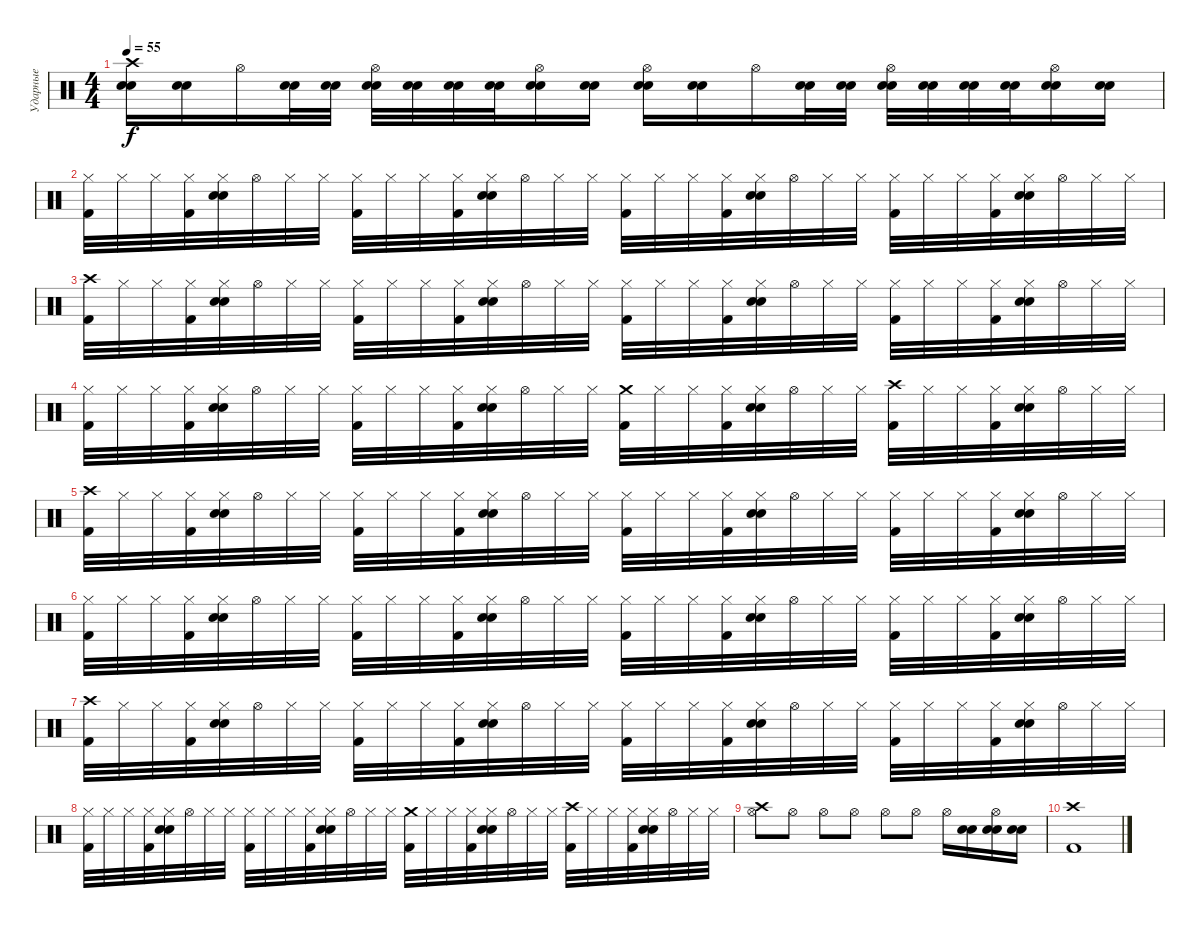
\track ("Ударные" "Ударные") {instrument percussion}
\staff {score}
\articulation defaults
\ts (4 4)
\tempo 55
\clef neutral
\ks c
("Crash high (hit)" "Electric Snare (hit)" "Snare (hit) 2").16{dy f} ("Electric Snare (hit)" "Snare (hit) 2").16 "Hi-Hat (open)".16 ("Electric Snare (hit)" "Snare (hit) 2").32 ("Electric Snare (hit)" "Snare (hit) 2").32 ("Hi-Hat (open)" "Electric Snare (hit)" "Snare (hit) 2").32 ("Electric Snare (hit)" "Snare (hit) 2").32 ("Electric Snare (hit)" "Snare (hit) 2").32 ("Electric Snare (hit)" "Snare (hit) 2").32 ("Hi-Hat (open)" "Electric Snare (hit)" "Snare (hit) 2").16 ("Electric Snare (hit)" "Snare (hit) 2").16 ("Hi-Hat (open)" "Electric Snare (hit)" "Snare (hit) 2").16 ("Electric Snare (hit)" "Snare (hit) 2").16 "Hi-Hat (open)".16 ("Electric Snare (hit)" "Snare (hit) 2").32 ("Electric Snare (hit)" "Snare (hit) 2").32 ("Hi-Hat (open)" "Electric Snare (hit)" "Snare (hit) 2").32 ("Electric Snare (hit)" "Snare (hit) 2").32 ("Electric Snare (hit)" "Snare (hit) 2").32 ("Electric Snare (hit)" "Snare (hit) 2").32 ("Hi-Hat (open)" "Electric Snare (hit)" "Snare (hit) 2").16 ("Electric Snare (hit)" "Snare (hit) 2").16 |
("Hi-Hat (closed)" "Kick (hit) 2").32 "Hi-Hat (closed)".32 "Hi-Hat (closed)".32 ("Hi-Hat (closed)" "Kick (hit) 2").32 ("Hi-Hat (closed)" "Snare (hit) 2" "Electric Snare (hit)").32 "Hi-Hat (open)".32 "Hi-Hat (closed)".32 "Hi-Hat (closed)".32 ("Hi-Hat (closed)" "Kick (hit) 2").32 "Hi-Hat (closed)".32 "Hi-Hat (closed)".32 ("Hi-Hat (closed)" "Kick (hit) 2").32 ("Hi-Hat (closed)" "Snare (hit) 2" "Electric Snare (hit)").32 "Hi-Hat (open)".32 "Hi-Hat (closed)".32 "Hi-Hat (closed)".32 ("Hi-Hat (closed)" "Kick (hit) 2").32 "Hi-Hat (closed)".32 "Hi-Hat (closed)".32 ("Hi-Hat (closed)" "Kick (hit) 2").32 ("Hi-Hat (closed)" "Snare (hit) 2" "Electric Snare (hit)").32 "Hi-Hat (open)".32 "Hi-Hat (closed)".32 "Hi-Hat (closed)".32 ("Hi-Hat (closed)" "Kick (hit) 2").32 "Hi-Hat (closed)".32 "Hi-Hat (closed)".32 ("Hi-Hat (closed)" "Kick (hit) 2").32 ("Hi-Hat (closed)" "Snare (hit) 2" "Electric Snare (hit)").32 "Hi-Hat (open)".32 "Hi-Hat (closed)".32 "Hi-Hat (closed)".32 |
("Crash high (hit)" "Kick (hit) 2").32 "Hi-Hat (closed)".32 "Hi-Hat (closed)".32 ("Hi-Hat (closed)" "Kick (hit) 2").32 ("Hi-Hat (closed)" "Snare (hit) 2" "Electric Snare (hit)").32 "Hi-Hat (open)".32 "Hi-Hat (closed)".32 "Hi-Hat (closed)".32 ("Hi-Hat (closed)" "Kick (hit) 2").32 "Hi-Hat (closed)".32 "Hi-Hat (closed)".32 ("Hi-Hat (closed)" "Kick (hit) 2").32 ("Hi-Hat (closed)" "Snare (hit) 2" "Electric Snare (hit)").32 "Hi-Hat (open)".32 "Hi-Hat (closed)".32 "Hi-Hat (closed)".32 ("Hi-Hat (closed)" "Kick (hit) 2").32 "Hi-Hat (closed)".32 "Hi-Hat (closed)".32 ("Hi-Hat (closed)" "Kick (hit) 2").32 ("Hi-Hat (closed)" "Snare (hit) 2" "Electric Snare (hit)").32 "Hi-Hat (open)".32 "Hi-Hat (closed)".32 "Hi-Hat (closed)".32 ("Hi-Hat (closed)" "Kick (hit) 2").32 "Hi-Hat (closed)".32 "Hi-Hat (closed)".32 ("Hi-Hat (closed)" "Kick (hit) 2").32 ("Hi-Hat (closed)" "Snare (hit) 2" "Electric Snare (hit)").32 "Hi-Hat (open)".32 "Hi-Hat (closed)".32 "Hi-Hat (closed)".32 |
("Hi-Hat (closed)" "Kick (hit) 2").32 "Hi-Hat (closed)".32 "Hi-Hat (closed)".32 ("Hi-Hat (closed)" "Kick (hit) 2").32 ("Hi-Hat (closed)" "Snare (hit) 2" "Electric Snare (hit)").32 "Hi-Hat (open)".32 "Hi-Hat (closed)".32 "Hi-Hat (closed)".32 ("Hi-Hat (closed)" "Kick (hit) 2").32 "Hi-Hat (closed)".32 "Hi-Hat (closed)".32 ("Hi-Hat (closed)" "Kick (hit) 2").32 ("Hi-Hat (closed)" "Snare (hit) 2" "Electric Snare (hit)").32 "Hi-Hat (open)".32 "Hi-Hat (closed)".32 "Hi-Hat (closed)".32 ("Crash medium (hit)" "Kick (hit) 2").32 "Hi-Hat (closed)".32 "Hi-Hat (closed)".32 ("Hi-Hat (closed)" "Kick (hit) 2").32 ("Hi-Hat (closed)" "Snare (hit) 2" "Electric Snare (hit)").32 "Hi-Hat (open)".32 "Hi-Hat (closed)".32 "Hi-Hat (closed)".32 ("Crash high (hit)" "Kick (hit) 2").32 "Hi-Hat (closed)".32 "Hi-Hat (closed)".32 ("Hi-Hat (closed)" "Kick (hit) 2").32 ("Hi-Hat (closed)" "Snare (hit) 2" "Electric Snare (hit)").32 "Hi-Hat (open)".32 "Hi-Hat (closed)".32 "Hi-Hat (closed)".32 |
("Crash high (hit)" "Kick (hit) 2").32 "Hi-Hat (closed)".32 "Hi-Hat (closed)".32 ("Hi-Hat (closed)" "Kick (hit) 2").32 ("Hi-Hat (closed)" "Snare (hit) 2" "Electric Snare (hit)").32 "Hi-Hat (open)".32 "Hi-Hat (closed)".32 "Hi-Hat (closed)".32 ("Hi-Hat (closed)" "Kick (hit) 2").32 "Hi-Hat (closed)".32 "Hi-Hat (closed)".32 ("Hi-Hat (closed)" "Kick (hit) 2").32 ("Hi-Hat (closed)" "Snare (hit) 2" "Electric Snare (hit)").32 "Hi-Hat (open)".32 "Hi-Hat (closed)".32 "Hi-Hat (closed)".32 ("Hi-Hat (closed)" "Kick (hit) 2").32 "Hi-Hat (closed)".32 "Hi-Hat (closed)".32 ("Hi-Hat (closed)" "Kick (hit) 2").32 ("Hi-Hat (closed)" "Snare (hit) 2" "Electric Snare (hit)").32 "Hi-Hat (open)".32 "Hi-Hat (closed)".32 "Hi-Hat (closed)".32 ("Hi-Hat (closed)" "Kick (hit) 2").32 "Hi-Hat (closed)".32 "Hi-Hat (closed)".32 ("Hi-Hat (closed)" "Kick (hit) 2").32 ("Hi-Hat (closed)" "Snare (hit) 2" "Electric Snare (hit)").32 "Hi-Hat (open)".32 "Hi-Hat (closed)".32 "Hi-Hat (closed)".32 |
("Hi-Hat (closed)" "Kick (hit) 2").32 "Hi-Hat (closed)".32 "Hi-Hat (closed)".32 ("Hi-Hat (closed)" "Kick (hit) 2").32 ("Hi-Hat (closed)" "Snare (hit) 2" "Electric Snare (hit)").32 "Hi-Hat (open)".32 "Hi-Hat (closed)".32 "Hi-Hat (closed)".32 ("Hi-Hat (closed)" "Kick (hit) 2").32 "Hi-Hat (closed)".32 "Hi-Hat (closed)".32 ("Hi-Hat (closed)" "Kick (hit) 2").32 ("Hi-Hat (closed)" "Snare (hit) 2" "Electric Snare (hit)").32 "Hi-Hat (open)".32 "Hi-Hat (closed)".32 "Hi-Hat (closed)".32 ("Hi-Hat (closed)" "Kick (hit) 2").32 "Hi-Hat (closed)".32 "Hi-Hat (closed)".32 ("Hi-Hat (closed)" "Kick (hit) 2").32 ("Hi-Hat (closed)" "Snare (hit) 2" "Electric Snare (hit)").32 "Hi-Hat (open)".32 "Hi-Hat (closed)".32 "Hi-Hat (closed)".32 ("Hi-Hat (closed)" "Kick (hit) 2").32 "Hi-Hat (closed)".32 "Hi-Hat (closed)".32 ("Hi-Hat (closed)" "Kick (hit) 2").32 ("Hi-Hat (closed)" "Snare (hit) 2" "Electric Snare (hit)").32 "Hi-Hat (open)".32 "Hi-Hat (closed)".32 "Hi-Hat (closed)".32 |
("Crash high (hit)" "Kick (hit) 2").32 "Hi-Hat (closed)".32 "Hi-Hat (closed)".32 ("Hi-Hat (closed)" "Kick (hit) 2").32 ("Hi-Hat (closed)" "Snare (hit) 2" "Electric Snare (hit)").32 "Hi-Hat (open)".32 "Hi-Hat (closed)".32 "Hi-Hat (closed)".32 ("Hi-Hat (closed)" "Kick (hit) 2").32 "Hi-Hat (closed)".32 "Hi-Hat (closed)".32 ("Hi-Hat (closed)" "Kick (hit) 2").32 ("Hi-Hat (closed)" "Snare (hit) 2" "Electric Snare (hit)").32 "Hi-Hat (open)".32 "Hi-Hat (closed)".32 "Hi-Hat (closed)".32 ("Hi-Hat (closed)" "Kick (hit) 2").32 "Hi-Hat (closed)".32 "Hi-Hat (closed)".32 ("Hi-Hat (closed)" "Kick (hit) 2").32 ("Hi-Hat (closed)" "Snare (hit) 2" "Electric Snare (hit)").32 "Hi-Hat (open)".32 "Hi-Hat (closed)".32 "Hi-Hat (closed)".32 ("Hi-Hat (closed)" "Kick (hit) 2").32 "Hi-Hat (closed)".32 "Hi-Hat (closed)".32 ("Hi-Hat (closed)" "Kick (hit) 2").32 ("Hi-Hat (closed)" "Snare (hit) 2" "Electric Snare (hit)").32 "Hi-Hat (open)".32 "Hi-Hat (closed)".32 "Hi-Hat (closed)".32 |
("Hi-Hat (closed)" "Kick (hit) 2").32 "Hi-Hat (closed)".32 "Hi-Hat (closed)".32 ("Hi-Hat (closed)" "Kick (hit) 2").32 ("Hi-Hat (closed)" "Snare (hit) 2" "Electric Snare (hit)").32 "Hi-Hat (open)".32 "Hi-Hat (closed)".32 "Hi-Hat (closed)".32 ("Hi-Hat (closed)" "Kick (hit) 2").32 "Hi-Hat (closed)".32 "Hi-Hat (closed)".32 ("Hi-Hat (closed)" "Kick (hit) 2").32 ("Hi-Hat (closed)" "Snare (hit) 2" "Electric Snare (hit)").32 "Hi-Hat (open)".32 "Hi-Hat (closed)".32 "Hi-Hat (closed)".32 ("Crash medium (hit)" "Kick (hit) 2").32 "Hi-Hat (closed)".32 "Hi-Hat (closed)".32 ("Hi-Hat (closed)" "Kick (hit) 2").32 ("Hi-Hat (closed)" "Snare (hit) 2" "Electric Snare (hit)").32 "Hi-Hat (open)".32 "Hi-Hat (closed)".32 "Hi-Hat (closed)".32 ("Crash high (hit)" "Kick (hit) 2").32 "Hi-Hat (closed)".32 "Hi-Hat (closed)".32 ("Hi-Hat (closed)" "Kick (hit) 2").32 ("Hi-Hat (closed)" "Snare (hit) 2" "Electric Snare (hit)").32 "Hi-Hat (open)".32 "Hi-Hat (closed)".32 "Hi-Hat (closed)".32 |
("Crash high (hit)" "Hi-Hat (open)").8 "Hi-Hat (open)".8 "Hi-Hat (open)".8 "Hi-Hat (open)".8 "Hi-Hat (open)".8 "Hi-Hat (open)".8 "Hi-Hat (open)".16 ("Electric Snare (hit)" "Snare (hit) 2").16 ("Hi-Hat (open)" "Electric Snare (hit)" "Snare (hit) 2").16 ("Electric Snare (hit)" "Snare (hit) 2").16 |
("Crash high (hit)" "Kick (hit) 2").1
